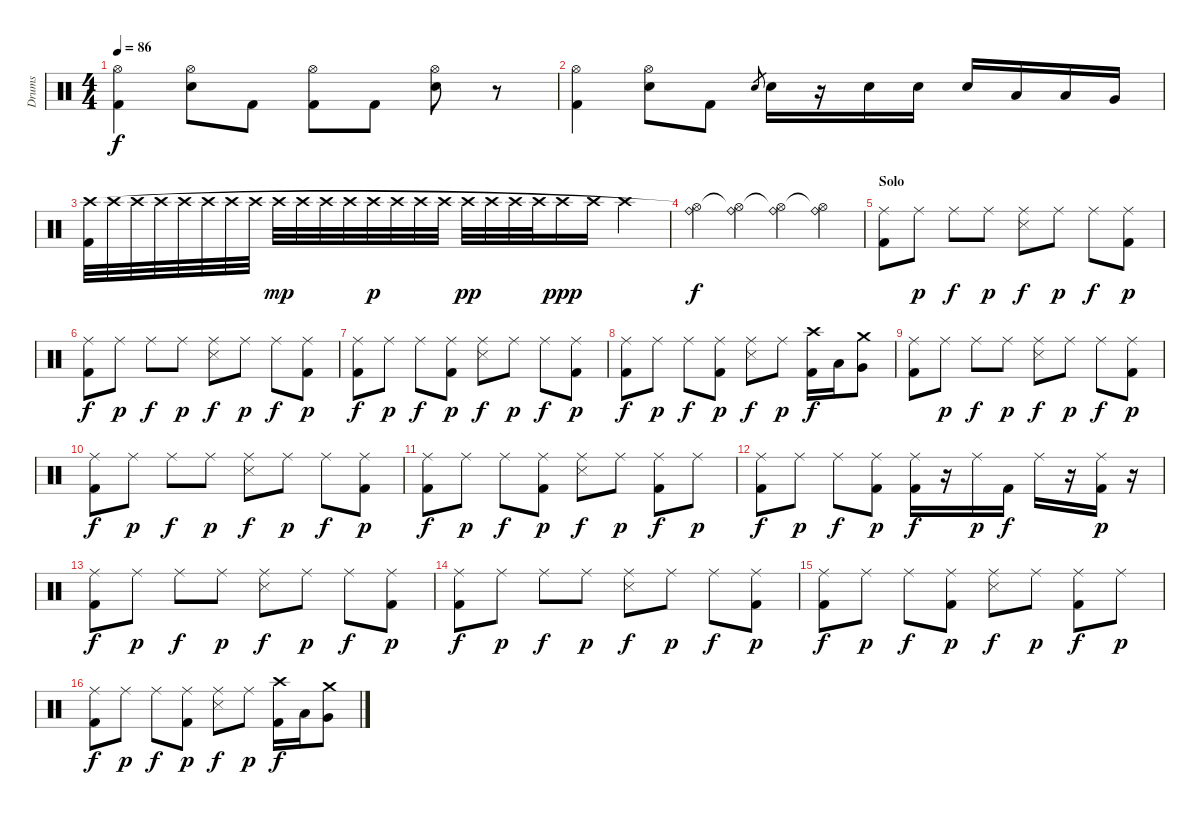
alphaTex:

\track ("Drums" "Drums") {instrument percussion}
\staff {score}
\articulation defaults
\ts (4 4)
\tempo 86
\clef neutral
\ks c
("Kick (hit) 2" "Hi-Hat (open)").4{dy f} ("Hi-Hat (open)" "Electric Snare (hit)").8 "Kick (hit) 2".8 ("Kick (hit) 2" "Hi-Hat (open)").8 "Kick (hit) 2".8 ("Hi-Hat (open)" "Electric Snare (hit)").8 r.8 |
("Kick (hit) 2" "Hi-Hat (open)").4 ("Hi-Hat (open)" "Electric Snare (hit)").8 "Kick (hit) 2".8 "Electric Snare (hit)".8{gr} "Electric Snare (hit)".16 r.16 "Electric Snare (hit)".16 "Electric Snare (hit)".16 "Electric Snare (hit)".16 "Low Tom (hit)".16 "Low Tom (hit)".16 "Very Low Tom (hit)".16 |
("Kick (hit) 2" "Crash high (hit)").32 "Crash high (hit)".32 "Crash high (hit)".32 "Crash high (hit)".32 "Crash high (hit)".32 "Crash high (hit)".32 "Crash high (hit)".32 "Crash high (hit)".32 "Crash high (hit)".32{dy mp} "Crash high (hit)".32 "Crash high (hit)".32 "Crash high (hit)".32 "Crash high (hit)".32{dy p} "Crash high (hit)".32 "Crash high (hit)".32 "Crash high (hit)".32 "Crash high (hit)".32{dy pp} "Crash high (hit)".32 "Crash high (hit)".32 "Crash high (hit)".32 "Crash high (hit)".16{dy ppp} "Crash high (hit)".16 "Crash high (hit)".4 |
("Ride (bell)" "Hi-Hat (open)"{t}).4{dy f} ("Ride (bell)" "Hi-Hat (open)"{t}).4 ("Ride (bell)" "Hi-Hat (open)"{t}).4 ("Ride (bell)" "Hi-Hat (open)"{t}).4 |
\section ("" "Solo")
("Kick (hit) 2" "Ride (middle)").8 "Ride (middle)".8{dy p} "Ride (middle)".8{dy f} "Ride (middle)".8{dy p} ("Ride (middle)" "Snare (side stick) 3").8{dy f} "Ride (middle)".8{dy p} "Ride (middle)".8{dy f} ("Kick (hit) 2" "Ride (middle)").8{dy p} |
("Kick (hit) 2" "Ride (middle)").8{dy f} "Ride (middle)".8{dy p} "Ride (middle)".8{dy f} "Ride (middle)".8{dy p} ("Ride (middle)" "Snare (side stick) 3").8{dy f} "Ride (middle)".8{dy p} "Ride (middle)".8{dy f} ("Kick (hit) 2" "Ride (middle)").8{dy p} |
("Kick (hit) 2" "Ride (middle)").8{dy f} "Ride (middle)".8{dy p} "Ride (middle)".8{dy f} ("Kick (hit) 2" "Ride (middle)").8{dy p} ("Ride (middle)" "Snare (side stick) 3").8{dy f} "Ride (middle)".8{dy p} "Ride (middle)".8{dy f} ("Kick (hit) 2" "Ride (middle)").8{dy p} |
("Kick (hit) 2" "Ride (middle)").8{dy f} "Ride (middle)".8{dy p} "Ride (middle)".8{dy f} ("Kick (hit) 2" "Ride (middle)").8{dy p} ("Ride (middle)" "Snare (side stick) 3").8{dy f} "Ride (middle)".8{dy p} ("Kick (hit) 2" "Crash high (hit)").16{dy f} "Low Tom (hit)".16 ("Very Low Tom (hit)" "Crash medium (hit)").8 |
("Kick (hit) 2" "Ride (middle)").8 "Ride (middle)".8{dy p} "Ride (middle)".8{dy f} "Ride (middle)".8{dy p} ("Ride (middle)" "Snare (side stick) 3").8{dy f} "Ride (middle)".8{dy p} "Ride (middle)".8{dy f} ("Kick (hit) 2" "Ride (middle)").8{dy p} |
("Kick (hit) 2" "Ride (middle)").8{dy f} "Ride (middle)".8{dy p} "Ride (middle)".8{dy f} "Ride (middle)".8{dy p} ("Ride (middle)" "Snare (side stick) 3").8{dy f} "Ride (middle)".8{dy p} "Ride (middle)".8{dy f} ("Kick (hit) 2" "Ride (middle)").8{dy p} |
("Kick (hit) 2" "Ride (middle)").8{dy f} "Ride (middle)".8{dy p} "Ride (middle)".8{dy f} ("Kick (hit) 2" "Ride (middle)").8{dy p} ("Ride (middle)" "Snare (side stick) 3").8{dy f} "Ride (middle)".8{dy p} ("Kick (hit) 2" "Ride (middle)").8{dy f} "Ride (middle)".8{dy p} |
("Kick (hit) 2" "Ride (middle)").8{dy f} "Ride (middle)".8{dy p} "Ride (middle)".8{dy f} ("Kick (hit) 2" "Ride (middle)").8{dy p} ("Kick (hit) 2" "Ride (middle)").16{dy f} r.16 "Ride (middle)".16{dy p} "Kick (hit) 2".16{dy f} "Ride (middle)".16 r.16 ("Kick (hit) 2" "Ride (middle)").16{dy p} r.16 |
("Kick (hit) 2" "Ride (middle)").8{dy f} "Ride (middle)".8{dy p} "Ride (middle)".8{dy f} "Ride (middle)".8{dy p} ("Ride (middle)" "Snare (side stick) 3").8{dy f} "Ride (middle)".8{dy p} "Ride (middle)".8{dy f} ("Kick (hit) 2" "Ride (middle)").8{dy p} |
("Kick (hit) 2" "Ride (middle)").8{dy f} "Ride (middle)".8{dy p} "Ride (middle)".8{dy f} "Ride (middle)".8{dy p} ("Ride (middle)" "Snare (side stick) 3").8{dy f} "Ride (middle)".8{dy p} "Ride (middle)".8{dy f} ("Kick (hit) 2" "Ride (middle)").8{dy p} |
("Kick (hit) 2" "Ride (middle)").8{dy f} "Ride (middle)".8{dy p} "Ride (middle)".8{dy f} ("Kick (hit) 2" "Ride (middle)").8{dy p} ("Ride (middle)" "Snare (side stick) 3").8{dy f} "Ride (middle)".8{dy p} ("Kick (hit) 2" "Ride (middle)").8{dy f} "Ride (middle)".8{dy p} |
("Kick (hit) 2" "Ride (middle)").8{dy f} "Ride (middle)".8{dy p} "Ride (middle)".8{dy f} ("Kick (hit) 2" "Ride (middle)").8{dy p} ("Ride (middle)" "Snare (side stick) 3").8{dy f} "Ride (middle)".8{dy p} ("Kick (hit) 2" "Crash high (hit)").16{dy f} "Low Tom (hit)".16 ("Very Low Tom (hit)" "Crash medium (hit)").8
